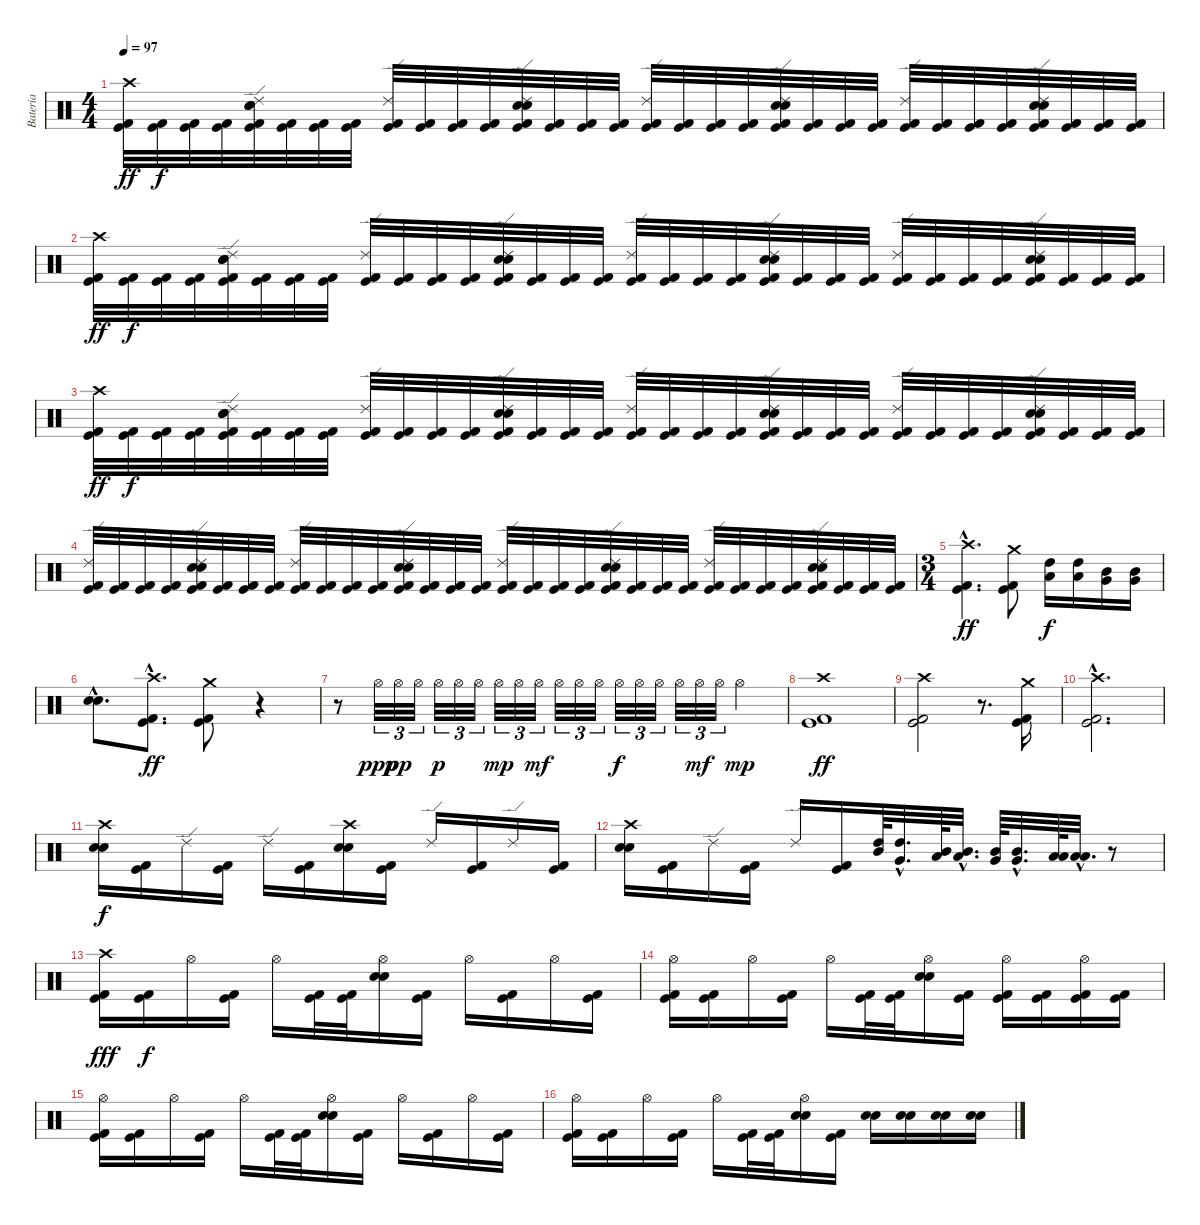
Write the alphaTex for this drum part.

\track ("Bateria" "Bateria") {instrument percussion}
\staff {score}
\articulation defaults
\ts (4 4)
\tempo 97
\clef neutral
\ks c
("Crash high (hit)" "Kick (hit) 2" "Kick (hit)").32{dy ff} ("Kick (hit) 2" "Kick (hit)").32{dy f} ("Kick (hit) 2" "Kick (hit)").32 ("Kick (hit) 2" "Kick (hit)").32 ("Ride (edge) 2" "Electric Snare (hit)" "Snare (hit) 2" "Kick (hit) 2" "Kick (hit)").32 ("Kick (hit) 2" "Kick (hit)").32 ("Kick (hit) 2" "Kick (hit)").32 ("Kick (hit) 2" "Kick (hit)").32 ("Ride (edge) 2" "Kick (hit) 2" "Kick (hit)").32 ("Kick (hit) 2" "Kick (hit)").32 ("Kick (hit) 2" "Kick (hit)").32 ("Kick (hit) 2" "Kick (hit)").32 ("Ride (edge) 2" "Electric Snare (hit)" "Snare (hit) 2" "Kick (hit) 2" "Kick (hit)").32 ("Kick (hit) 2" "Kick (hit)").32 ("Kick (hit) 2" "Kick (hit)").32 ("Kick (hit) 2" "Kick (hit)").32 ("Ride (edge) 2" "Kick (hit) 2" "Kick (hit)").32 ("Kick (hit) 2" "Kick (hit)").32 ("Kick (hit) 2" "Kick (hit)").32 ("Kick (hit) 2" "Kick (hit)").32 ("Ride (edge) 2" "Electric Snare (hit)" "Snare (hit) 2" "Kick (hit) 2" "Kick (hit)").32 ("Kick (hit) 2" "Kick (hit)").32 ("Kick (hit) 2" "Kick (hit)").32 ("Kick (hit) 2" "Kick (hit)").32 ("Ride (edge) 2" "Kick (hit) 2" "Kick (hit)").32 ("Kick (hit) 2" "Kick (hit)").32 ("Kick (hit) 2" "Kick (hit)").32 ("Kick (hit) 2" "Kick (hit)").32 ("Ride (edge) 2" "Electric Snare (hit)" "Snare (hit) 2" "Kick (hit) 2" "Kick (hit)").32 ("Kick (hit) 2" "Kick (hit)").32 ("Kick (hit) 2" "Kick (hit)").32 ("Kick (hit) 2" "Kick (hit)").32 |
("Crash high (hit)" "Kick (hit) 2" "Kick (hit)").32{dy ff} ("Kick (hit) 2" "Kick (hit)").32{dy f} ("Kick (hit) 2" "Kick (hit)").32 ("Kick (hit) 2" "Kick (hit)").32 ("Ride (edge) 2" "Electric Snare (hit)" "Snare (hit) 2" "Kick (hit) 2" "Kick (hit)").32 ("Kick (hit) 2" "Kick (hit)").32 ("Kick (hit) 2" "Kick (hit)").32 ("Kick (hit) 2" "Kick (hit)").32 ("Ride (edge) 2" "Kick (hit) 2" "Kick (hit)").32 ("Kick (hit) 2" "Kick (hit)").32 ("Kick (hit) 2" "Kick (hit)").32 ("Kick (hit) 2" "Kick (hit)").32 ("Ride (edge) 2" "Electric Snare (hit)" "Snare (hit) 2" "Kick (hit) 2" "Kick (hit)").32 ("Kick (hit) 2" "Kick (hit)").32 ("Kick (hit) 2" "Kick (hit)").32 ("Kick (hit) 2" "Kick (hit)").32 ("Ride (edge) 2" "Kick (hit) 2" "Kick (hit)").32 ("Kick (hit) 2" "Kick (hit)").32 ("Kick (hit) 2" "Kick (hit)").32 ("Kick (hit) 2" "Kick (hit)").32 ("Ride (edge) 2" "Electric Snare (hit)" "Snare (hit) 2" "Kick (hit) 2" "Kick (hit)").32 ("Kick (hit) 2" "Kick (hit)").32 ("Kick (hit) 2" "Kick (hit)").32 ("Kick (hit) 2" "Kick (hit)").32 ("Ride (edge) 2" "Kick (hit) 2" "Kick (hit)").32 ("Kick (hit) 2" "Kick (hit)").32 ("Kick (hit) 2" "Kick (hit)").32 ("Kick (hit) 2" "Kick (hit)").32 ("Ride (edge) 2" "Electric Snare (hit)" "Snare (hit) 2" "Kick (hit) 2" "Kick (hit)").32 ("Kick (hit) 2" "Kick (hit)").32 ("Kick (hit) 2" "Kick (hit)").32 ("Kick (hit) 2" "Kick (hit)").32 |
("Crash high (hit)" "Kick (hit) 2" "Kick (hit)").32{dy ff} ("Kick (hit) 2" "Kick (hit)").32{dy f} ("Kick (hit) 2" "Kick (hit)").32 ("Kick (hit) 2" "Kick (hit)").32 ("Ride (edge) 2" "Electric Snare (hit)" "Snare (hit) 2" "Kick (hit) 2" "Kick (hit)").32 ("Kick (hit) 2" "Kick (hit)").32 ("Kick (hit) 2" "Kick (hit)").32 ("Kick (hit) 2" "Kick (hit)").32 ("Ride (edge) 2" "Kick (hit) 2" "Kick (hit)").32 ("Kick (hit) 2" "Kick (hit)").32 ("Kick (hit) 2" "Kick (hit)").32 ("Kick (hit) 2" "Kick (hit)").32 ("Ride (edge) 2" "Electric Snare (hit)" "Snare (hit) 2" "Kick (hit) 2" "Kick (hit)").32 ("Kick (hit) 2" "Kick (hit)").32 ("Kick (hit) 2" "Kick (hit)").32 ("Kick (hit) 2" "Kick (hit)").32 ("Ride (edge) 2" "Kick (hit) 2" "Kick (hit)").32 ("Kick (hit) 2" "Kick (hit)").32 ("Kick (hit) 2" "Kick (hit)").32 ("Kick (hit) 2" "Kick (hit)").32 ("Ride (edge) 2" "Electric Snare (hit)" "Snare (hit) 2" "Kick (hit) 2" "Kick (hit)").32 ("Kick (hit) 2" "Kick (hit)").32 ("Kick (hit) 2" "Kick (hit)").32 ("Kick (hit) 2" "Kick (hit)").32 ("Ride (edge) 2" "Kick (hit) 2" "Kick (hit)").32 ("Kick (hit) 2" "Kick (hit)").32 ("Kick (hit) 2" "Kick (hit)").32 ("Kick (hit) 2" "Kick (hit)").32 ("Ride (edge) 2" "Electric Snare (hit)" "Snare (hit) 2" "Kick (hit) 2" "Kick (hit)").32 ("Kick (hit) 2" "Kick (hit)").32 ("Kick (hit) 2" "Kick (hit)").32 ("Kick (hit) 2" "Kick (hit)").32 |
("Ride (edge) 2" "Kick (hit) 2" "Kick (hit)").32 ("Kick (hit) 2" "Kick (hit)").32 ("Kick (hit) 2" "Kick (hit)").32 ("Kick (hit) 2" "Kick (hit)").32 ("Ride (edge) 2" "Electric Snare (hit)" "Snare (hit) 2" "Kick (hit) 2" "Kick (hit)").32 ("Kick (hit) 2" "Kick (hit)").32 ("Kick (hit) 2" "Kick (hit)").32 ("Kick (hit) 2" "Kick (hit)").32 ("Ride (edge) 2" "Kick (hit) 2" "Kick (hit)").32 ("Kick (hit) 2" "Kick (hit)").32 ("Kick (hit) 2" "Kick (hit)").32 ("Kick (hit) 2" "Kick (hit)").32 ("Ride (edge) 2" "Electric Snare (hit)" "Snare (hit) 2" "Kick (hit) 2" "Kick (hit)").32 ("Kick (hit) 2" "Kick (hit)").32 ("Kick (hit) 2" "Kick (hit)").32 ("Kick (hit) 2" "Kick (hit)").32 ("Ride (edge) 2" "Kick (hit) 2" "Kick (hit)").32 ("Kick (hit) 2" "Kick (hit)").32 ("Kick (hit) 2" "Kick (hit)").32 ("Kick (hit) 2" "Kick (hit)").32 ("Ride (edge) 2" "Electric Snare (hit)" "Snare (hit) 2" "Kick (hit) 2" "Kick (hit)").32 ("Kick (hit) 2" "Kick (hit)").32 ("Kick (hit) 2" "Kick (hit)").32 ("Kick (hit) 2" "Kick (hit)").32 ("Ride (edge) 2" "Kick (hit) 2" "Kick (hit)").32 ("Kick (hit) 2" "Kick (hit)").32 ("Kick (hit) 2" "Kick (hit)").32 ("Kick (hit) 2" "Kick (hit)").32 ("Ride (edge) 2" "Electric Snare (hit)" "Snare (hit) 2" "Kick (hit) 2" "Kick (hit)").32 ("Kick (hit) 2" "Kick (hit)").32 ("Kick (hit) 2" "Kick (hit)").32 ("Kick (hit) 2" "Kick (hit)").32 |
\ts (3 4)
("Crash high (hit)"{hac} "Kick (hit) 2"{hac} "Kick (hit)"{hac}).4{d dy ff} ("Crash medium (hit)" "Kick (hit) 2" "Kick (hit)").8 ("High Tom (hit)" "Low Tom (hit)").16{dy f} ("High Tom (hit)" "Low Tom (hit)").16 ("Mid Tom (hit)" "Very Low Tom (hit)").16 ("Mid Tom (hit)" "Very Low Tom (hit)").16 |
("Electric Snare (hit)"{hac} "Snare (hit) 2"{hac}).8{d} ("Crash high (hit)"{hac} "Kick (hit) 2"{hac} "Kick (hit)"{hac}).8{d dy ff} ("Crash medium (hit)" "Kick (hit) 2" "Kick (hit)").8 r.4 |
r.8 "Hi-Hat (open)".32{tu (3 2) dy ppp} "Hi-Hat (open)".32{tu (3 2) dy pp} "Hi-Hat (open)".32{tu (3 2)} "Hi-Hat (open)".32{tu (3 2) dy p} "Hi-Hat (open)".32{tu (3 2)} "Hi-Hat (open)".32{tu (3 2)} "Hi-Hat (open)".32{tu (3 2) dy mp} "Hi-Hat (open)".32{tu (3 2)} "Hi-Hat (open)".32{tu (3 2) dy mf} "Hi-Hat (open)".32{tu (3 2)} "Hi-Hat (open)".32{tu (3 2)} "Hi-Hat (open)".32{tu (3 2)} "Hi-Hat (open)".32{tu (3 2) dy f} "Hi-Hat (open)".32{tu (3 2)} "Hi-Hat (open)".32{tu (3 2)} "Hi-Hat (open)".32{tu (3 2)} "Hi-Hat (open)".32{tu (3 2) dy mf} "Hi-Hat (open)".32{tu (3 2)} "Hi-Hat (open)".4{dy mp} |
("Crash high (hit)" "Kick (hit) 2" "Kick (hit)").1{dy ff} |
("Crash high (hit)" "Kick (hit) 2" "Kick (hit)").2 r.8{d} ("Crash medium (hit)" "Kick (hit) 2" "Kick (hit)").16 |
("Crash high (hit)"{hac} "Kick (hit) 2"{hac} "Kick (hit)"{hac}).2{d} |
("Crash high (hit)" "Electric Snare (hit)" "Snare (hit) 2").16{dy f} ("Kick (hit) 2" "Kick (hit)").16 "Ride (edge) 2".16 ("Kick (hit) 2" "Kick (hit)").16 "Ride (edge) 2".16 ("Kick (hit) 2" "Kick (hit)").16 ("Crash high (hit)" "Electric Snare (hit)" "Snare (hit) 2").16 ("Kick (hit) 2" "Kick (hit)").16 "Ride (edge) 2".16 ("Kick (hit) 2" "Kick (hit)").16 "Ride (edge) 2".16 ("Kick (hit) 2" "Kick (hit)").16 |
("Crash high (hit)" "Electric Snare (hit)" "Snare (hit) 2").16 ("Kick (hit) 2" "Kick (hit)").16 "Ride (edge) 2".16 ("Kick (hit) 2" "Kick (hit)").16 "Ride (edge) 2".16 ("Kick (hit) 2" "Kick (hit)").16 ("High Tom (hit)" "Mid Tom (hit)").64 ("High Tom (hit)"{hac} "Very Low Tom (hit)"{hac}).32{d} ("Mid Tom (hit)" "Low Tom (hit)").64 ("Mid Tom (hit)"{hac} "Low Tom (hit)"{hac}).32{d} ("Mid Tom (hit)" "Very Low Tom (hit)").64 ("Mid Tom (hit)"{hac} "Very Low Tom (hit)"{hac}).32{d} ("Low Tom (hit)" "Low Floor Tom (hit)").64 ("Low Tom (hit)"{hac} "Low Floor Tom (hit)"{hac}).32{d} r.8 |
("Crash high (hit)" "Kick (hit) 2" "Kick (hit)").16{dy fff} ("Kick (hit) 2" "Kick (hit)").16{dy f} "Hi-Hat (open)".16 ("Kick (hit) 2" "Kick (hit)").16 "Hi-Hat (open)".16 ("Kick (hit) 2" "Kick (hit)").32 ("Kick (hit) 2" "Kick (hit)").32 ("Hi-Hat (open)" "Electric Snare (hit)" "Snare (hit) 2").16 ("Kick (hit) 2" "Kick (hit)").16 "Hi-Hat (open)".16 ("Kick (hit) 2" "Kick (hit)").16 "Hi-Hat (open)".16 ("Kick (hit) 2" "Kick (hit)").16 |
("Hi-Hat (open)" "Kick (hit) 2" "Kick (hit)").16 ("Kick (hit) 2" "Kick (hit)").16 "Hi-Hat (open)".16 ("Kick (hit) 2" "Kick (hit)").16 "Hi-Hat (open)".16 ("Kick (hit) 2" "Kick (hit)").32 ("Kick (hit) 2" "Kick (hit)").32 ("Hi-Hat (open)" "Electric Snare (hit)" "Snare (hit) 2").16 ("Kick (hit) 2" "Kick (hit)").16 ("Hi-Hat (open)" "Kick (hit) 2" "Kick (hit)").16 ("Kick (hit) 2" "Kick (hit)").16 ("Hi-Hat (open)" "Kick (hit) 2" "Kick (hit)").16 ("Kick (hit) 2" "Kick (hit)").16 |
("Hi-Hat (open)" "Kick (hit) 2" "Kick (hit)").16 ("Kick (hit) 2" "Kick (hit)").16 "Hi-Hat (open)".16 ("Kick (hit) 2" "Kick (hit)").16 "Hi-Hat (open)".16 ("Kick (hit) 2" "Kick (hit)").32 ("Kick (hit) 2" "Kick (hit)").32 ("Hi-Hat (open)" "Electric Snare (hit)" "Snare (hit) 2").16 ("Kick (hit) 2" "Kick (hit)").16 "Hi-Hat (open)".16 ("Kick (hit) 2" "Kick (hit)").16 "Hi-Hat (open)".16 ("Kick (hit) 2" "Kick (hit)").16 |
("Hi-Hat (open)" "Kick (hit) 2" "Kick (hit)").16 ("Kick (hit) 2" "Kick (hit)").16 "Hi-Hat (open)".16 ("Kick (hit) 2" "Kick (hit)").16 "Hi-Hat (open)".16 ("Kick (hit) 2" "Kick (hit)").32 ("Kick (hit) 2" "Kick (hit)").32 ("Hi-Hat (open)" "Electric Snare (hit)" "Snare (hit) 2").16 ("Kick (hit) 2" "Kick (hit)").16 ("Electric Snare (hit)" "Snare (hit) 2").16 ("Electric Snare (hit)" "Snare (hit) 2").16 ("Electric Snare (hit)" "Snare (hit) 2").16 ("Electric Snare (hit)" "Snare (hit) 2").16
